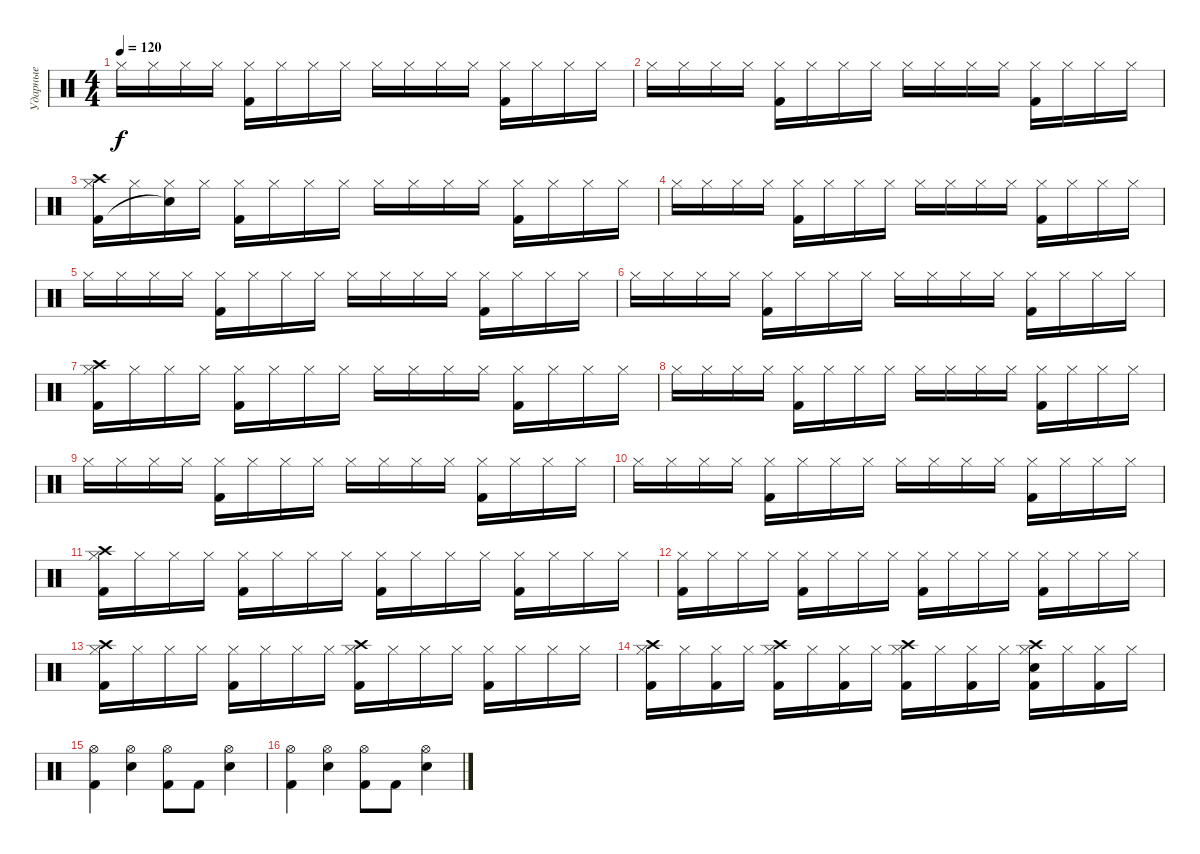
\track ("Ударные" "Ударные") {instrument percussion}
\staff {score}
\articulation defaults
\ts (4 4)
\tempo 120
\clef neutral
\ks c "Hi-Hat (closed)".16{dy f} "Hi-Hat (closed)".16 "Hi-Hat (closed)".16 "Hi-Hat (closed)".16
("Hi-Hat (closed)" "Kick (hit) 2").16 "Hi-Hat (closed)".16 "Hi-Hat (closed)".16 "Hi-Hat (closed)".16 "Hi-Hat (closed)".16 "Hi-Hat (closed)".16 "Hi-Hat (closed)".16 "Hi-Hat (closed)".16 ("Hi-Hat (closed)" "Kick (hit) 2").16 "Hi-Hat (closed)".16 "Hi-Hat (closed)".16 "Hi-Hat (closed)".16 |
"Hi-Hat (closed)".16 "Hi-Hat (closed)".16 "Hi-Hat (closed)".16 "Hi-Hat (closed)".16 ("Hi-Hat (closed)" "Kick (hit) 2").16 "Hi-Hat (closed)".16 "Hi-Hat (closed)".16 "Hi-Hat (closed)".16 "Hi-Hat (closed)".16 "Hi-Hat (closed)".16 "Hi-Hat (closed)".16 "Hi-Hat (closed)".16 ("Hi-Hat (closed)" "Kick (hit) 2").16 "Hi-Hat (closed)".16 "Hi-Hat (closed)".16 "Hi-Hat (closed)".16 |
("Hi-Hat (closed)" "Kick (hit) 2" "Crash high (hit)").16 "Hi-Hat (closed)".16 ("Hi-Hat (closed)" "Snare (hit)"{t}).16 "Hi-Hat (closed)".16 ("Hi-Hat (closed)" "Kick (hit) 2").16 "Hi-Hat (closed)".16 "Hi-Hat (closed)".16 "Hi-Hat (closed)".16 "Hi-Hat (closed)".16 "Hi-Hat (closed)".16 "Hi-Hat (closed)".16 "Hi-Hat (closed)".16 ("Hi-Hat (closed)" "Kick (hit) 2").16 "Hi-Hat (closed)".16 "Hi-Hat (closed)".16 "Hi-Hat (closed)".16 |
"Hi-Hat (closed)".16 "Hi-Hat (closed)".16 "Hi-Hat (closed)".16 "Hi-Hat (closed)".16 ("Hi-Hat (closed)" "Kick (hit) 2").16 "Hi-Hat (closed)".16 "Hi-Hat (closed)".16 "Hi-Hat (closed)".16 "Hi-Hat (closed)".16 "Hi-Hat (closed)".16 "Hi-Hat (closed)".16 "Hi-Hat (closed)".16 ("Hi-Hat (closed)" "Kick (hit) 2").16 "Hi-Hat (closed)".16 "Hi-Hat (closed)".16 "Hi-Hat (closed)".16 |
"Hi-Hat (closed)".16 "Hi-Hat (closed)".16 "Hi-Hat (closed)".16 "Hi-Hat (closed)".16 ("Hi-Hat (closed)" "Kick (hit) 2").16 "Hi-Hat (closed)".16 "Hi-Hat (closed)".16 "Hi-Hat (closed)".16 "Hi-Hat (closed)".16 "Hi-Hat (closed)".16 "Hi-Hat (closed)".16 "Hi-Hat (closed)".16 ("Hi-Hat (closed)" "Kick (hit) 2").16 "Hi-Hat (closed)".16 "Hi-Hat (closed)".16 "Hi-Hat (closed)".16 |
"Hi-Hat (closed)".16 "Hi-Hat (closed)".16 "Hi-Hat (closed)".16 "Hi-Hat (closed)".16 ("Hi-Hat (closed)" "Kick (hit) 2").16 "Hi-Hat (closed)".16 "Hi-Hat (closed)".16 "Hi-Hat (closed)".16 "Hi-Hat (closed)".16 "Hi-Hat (closed)".16 "Hi-Hat (closed)".16 "Hi-Hat (closed)".16 ("Hi-Hat (closed)" "Kick (hit) 2").16 "Hi-Hat (closed)".16 "Hi-Hat (closed)".16 "Hi-Hat (closed)".16 |
("Hi-Hat (closed)" "Kick (hit) 2" "Crash high (hit)").16 "Hi-Hat (closed)".16 "Hi-Hat (closed)".16 "Hi-Hat (closed)".16 ("Hi-Hat (closed)" "Kick (hit) 2").16 "Hi-Hat (closed)".16 "Hi-Hat (closed)".16 "Hi-Hat (closed)".16 "Hi-Hat (closed)".16 "Hi-Hat (closed)".16 "Hi-Hat (closed)".16 "Hi-Hat (closed)".16 ("Hi-Hat (closed)" "Kick (hit) 2").16 "Hi-Hat (closed)".16 "Hi-Hat (closed)".16 "Hi-Hat (closed)".16 |
"Hi-Hat (closed)".16 "Hi-Hat (closed)".16 "Hi-Hat (closed)".16 "Hi-Hat (closed)".16 ("Hi-Hat (closed)" "Kick (hit) 2").16 "Hi-Hat (closed)".16 "Hi-Hat (closed)".16 "Hi-Hat (closed)".16 "Hi-Hat (closed)".16 "Hi-Hat (closed)".16 "Hi-Hat (closed)".16 "Hi-Hat (closed)".16 ("Hi-Hat (closed)" "Kick (hit) 2").16 "Hi-Hat (closed)".16 "Hi-Hat (closed)".16 "Hi-Hat (closed)".16 |
"Hi-Hat (closed)".16 "Hi-Hat (closed)".16 "Hi-Hat (closed)".16 "Hi-Hat (closed)".16 ("Hi-Hat (closed)" "Kick (hit) 2").16 "Hi-Hat (closed)".16 "Hi-Hat (closed)".16 "Hi-Hat (closed)".16 "Hi-Hat (closed)".16 "Hi-Hat (closed)".16 "Hi-Hat (closed)".16 "Hi-Hat (closed)".16 ("Hi-Hat (closed)" "Kick (hit) 2").16 "Hi-Hat (closed)".16 "Hi-Hat (closed)".16 "Hi-Hat (closed)".16 |
"Hi-Hat (closed)".16 "Hi-Hat (closed)".16 "Hi-Hat (closed)".16 "Hi-Hat (closed)".16 ("Hi-Hat (closed)" "Kick (hit) 2").16 "Hi-Hat (closed)".16 "Hi-Hat (closed)".16 "Hi-Hat (closed)".16 "Hi-Hat (closed)".16 "Hi-Hat (closed)".16 "Hi-Hat (closed)".16 "Hi-Hat (closed)".16 ("Hi-Hat (closed)" "Kick (hit) 2").16 "Hi-Hat (closed)".16 "Hi-Hat (closed)".16 "Hi-Hat (closed)".16 |
("Hi-Hat (closed)" "Crash high (hit)" "Kick (hit) 2").16 "Hi-Hat (closed)".16 "Hi-Hat (closed)".16 "Hi-Hat (closed)".16 ("Hi-Hat (closed)" "Kick (hit) 2").16 "Hi-Hat (closed)".16 "Hi-Hat (closed)".16 "Hi-Hat (closed)".16 ("Hi-Hat (closed)" "Kick (hit) 2").16 "Hi-Hat (closed)".16 "Hi-Hat (closed)".16 "Hi-Hat (closed)".16 ("Hi-Hat (closed)" "Kick (hit) 2").16 "Hi-Hat (closed)".16 "Hi-Hat (closed)".16 "Hi-Hat (closed)".16 |
("Hi-Hat (closed)" "Kick (hit) 2").16 "Hi-Hat (closed)".16 "Hi-Hat (closed)".16 "Hi-Hat (closed)".16 ("Hi-Hat (closed)" "Kick (hit) 2").16 "Hi-Hat (closed)".16 "Hi-Hat (closed)".16 "Hi-Hat (closed)".16 ("Hi-Hat (closed)" "Kick (hit) 2").16 "Hi-Hat (closed)".16 "Hi-Hat (closed)".16 "Hi-Hat (closed)".16 ("Hi-Hat (closed)" "Kick (hit) 2").16 "Hi-Hat (closed)".16 "Hi-Hat (closed)".16 "Hi-Hat (closed)".16 |
("Hi-Hat (closed)" "Kick (hit) 2" "Crash high (hit)").16 "Hi-Hat (closed)".16 "Hi-Hat (closed)".16 "Hi-Hat (closed)".16 ("Hi-Hat (closed)" "Kick (hit) 2").16 "Hi-Hat (closed)".16 "Hi-Hat (closed)".16 "Hi-Hat (closed)".16 ("Hi-Hat (closed)" "Kick (hit) 2" "Crash high (hit)").16 "Hi-Hat (closed)".16 "Hi-Hat (closed)".16 "Hi-Hat (closed)".16 ("Hi-Hat (closed)" "Kick (hit) 2").16 "Hi-Hat (closed)".16 "Hi-Hat (closed)".16 "Hi-Hat (closed)".16 |
("Hi-Hat (closed)" "Kick (hit) 2" "Crash high (hit)").16 "Hi-Hat (closed)".16 ("Hi-Hat (closed)" "Kick (hit) 2").16 "Hi-Hat (closed)".16 ("Hi-Hat (closed)" "Kick (hit) 2" "Crash high (hit)").16 "Hi-Hat (closed)".16 ("Hi-Hat (closed)" "Kick (hit) 2").16 "Hi-Hat (closed)".16 ("Hi-Hat (closed)" "Kick (hit) 2" "Crash high (hit)").16 "Hi-Hat (closed)".16 ("Hi-Hat (closed)" "Kick (hit) 2").16 "Hi-Hat (closed)".16 ("Hi-Hat (closed)" "Kick (hit) 2" "Crash high (hit)" "Snare (hit) 2").16 "Hi-Hat (closed)".16 ("Hi-Hat (closed)" "Kick (hit) 2").16 "Hi-Hat (closed)".16 |
("Kick (hit) 2" "Hi-Hat (open)").4 ("Snare (hit) 2" "Hi-Hat (open)").4 ("Kick (hit) 2" "Hi-Hat (open)").8 "Kick (hit) 2".8 ("Snare (hit) 2" "Hi-Hat (open)").4 |
("Kick (hit) 2" "Hi-Hat (open)").4 ("Snare (hit) 2" "Hi-Hat (open)").4 ("Kick (hit) 2" "Hi-Hat (open)").8 "Kick (hit) 2".8 ("Snare (hit) 2" "Hi-Hat (open)").4
